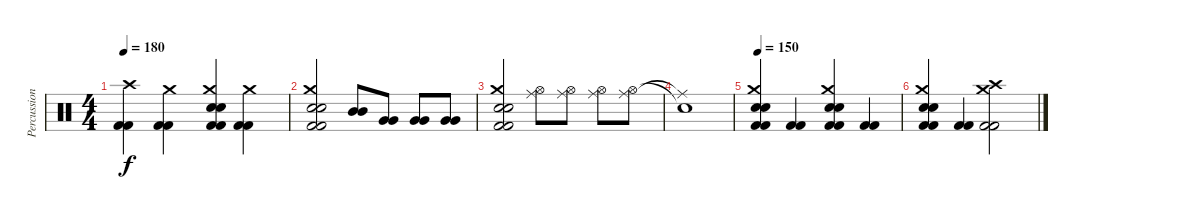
\track ("Percussion" "Percussion") {instrument percussion}
\staff {score}
\articulation defaults
\ts (4 4)
\tempo 180
\clef neutral
\ks c
("Crash high (hit)" "Kick (hit) 2" "Kick (hit) 2").4{dy f} ("Crash medium (hit)" "Kick (hit) 2" "Kick (hit) 2").4 ("Crash medium (hit)" "Kick (hit) 2" "Kick (hit) 2" "Snare (hit) 2" "Snare (hit) 2").4 ("Crash medium (hit)" "Kick (hit) 2" "Kick (hit) 2").4 |
("Crash medium (hit)" "Kick (hit) 2" "Kick (hit) 2" "Snare (hit) 2" "Snare (hit) 2").2 ("Mid Tom (hit)" "Mid Tom (hit)").8 ("Very Low Tom (hit)" "Very Low Tom (hit)").8 ("Very Low Tom (hit)" "Very Low Tom (hit)").8 ("Very Low Tom (hit)" "Very Low Tom (hit)").8 |
("Crash medium (hit)" "Kick (hit) 2" "Kick (hit) 2" "Snare (hit) 2" "Snare (hit) 2").2 ("Ride (middle)" "Hi-Hat (open)").8 ("Ride (middle)" "Hi-Hat (open)").8 ("Ride (middle)" "Hi-Hat (open)").8 ("Ride (middle)" "Hi-Hat (open)").8 |
("Ride (middle)"{t} "Snare (hit)"{t}).1 |
\tempo 150
("Crash medium (hit)" "Snare (hit) 2" "Snare (hit) 2" "Kick (hit) 2" "Kick (hit) 2").4 ("Kick (hit) 2" "Kick (hit) 2").4 ("Crash medium (hit)" "Snare (hit) 2" "Snare (hit) 2" "Kick (hit) 2" "Kick (hit) 2").4 ("Kick (hit) 2" "Kick (hit) 2").4 |
("Crash medium (hit)" "Snare (hit) 2" "Snare (hit) 2" "Kick (hit) 2" "Kick (hit) 2").4 ("Kick (hit) 2" "Kick (hit) 2").4 ("Crash high (hit)" "Crash medium (hit)" "Kick (hit) 2" "Kick (hit) 2").2
